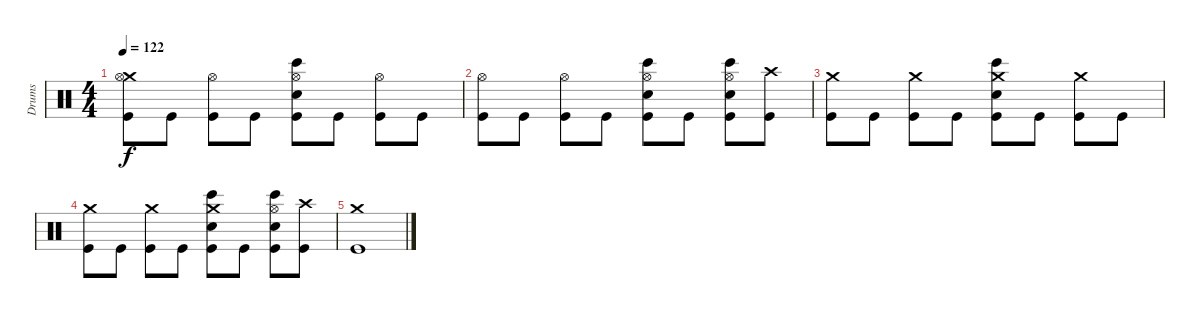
\track ("Drums" "Drums") {instrument percussion}
\staff {score}
\articulation defaults
\ts (4 4)
\tempo 122
\clef neutral
\ks c
("Crash medium (hit)" "Hi-Hat (open)" "Kick (hit)").8{dy f} "Kick (hit)".8 ("Hi-Hat (open)" "Kick (hit)").8 "Kick (hit)".8 ("Hi-Hat (open)" "Snare (hit) 2" "Bongo High (hit)" "Kick (hit)").8 "Kick (hit)".8 ("Hi-Hat (open)" "Kick (hit)").8 "Kick (hit)".8 |
("Hi-Hat (open)" "Kick (hit)").8 "Kick (hit)".8 ("Hi-Hat (open)" "Kick (hit)").8 "Kick (hit)".8 ("Hi-Hat (open)" "Snare (hit) 2" "Bongo High (hit)" "Kick (hit)").8 "Kick (hit)".8 ("Hi-Hat (open)" "Snare (hit) 2" "Bongo High (hit)" "Kick (hit)").8 ("Crash high (hit)" "Kick (hit)").8 |
("Crash medium (hit)" "Kick (hit)").8 "Kick (hit)".8 ("Crash medium (hit)" "Kick (hit)").8 "Kick (hit)".8 ("Crash medium (hit)" "Snare (hit) 2" "Bongo High (hit)" "Kick (hit)").8 "Kick (hit)".8 ("Crash medium (hit)" "Kick (hit)").8 "Kick (hit)".8 |
("Crash medium (hit)" "Kick (hit)").8 "Kick (hit)".8 ("Crash medium (hit)" "Kick (hit)").8 "Kick (hit)".8 ("Crash medium (hit)" "Snare (hit) 2" "Bongo High (hit)" "Kick (hit)").8 "Kick (hit)".8 ("Hi-Hat (open)" "Snare (hit) 2" "Bongo High (hit)" "Kick (hit)").8 ("Crash high (hit)" "Kick (hit)").8 |
("Crash medium (hit)" "Kick (hit)").1
